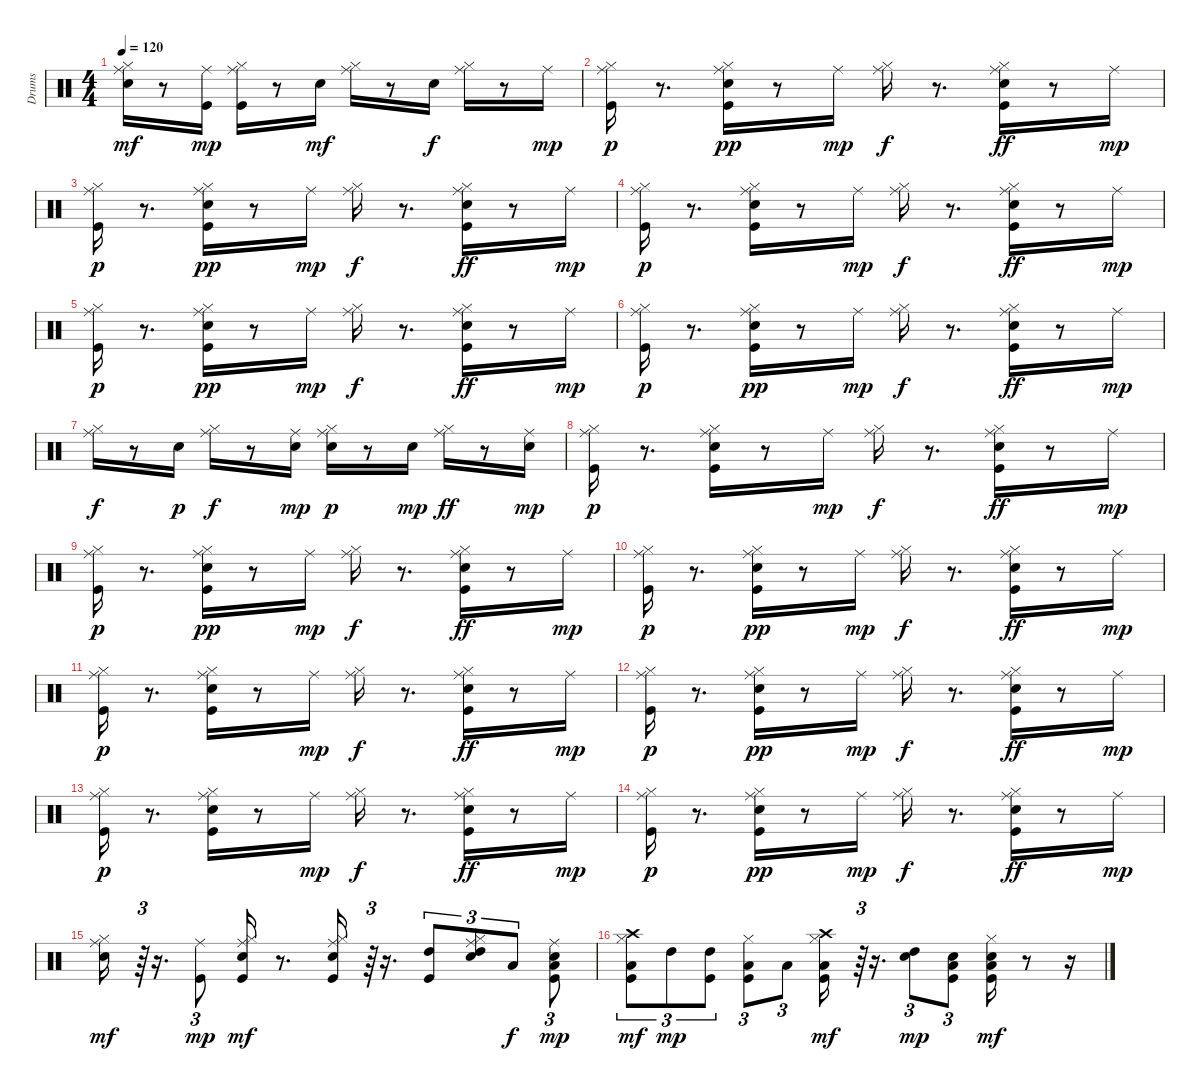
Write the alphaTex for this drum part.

\track ("Drums" "Drums") {instrument percussion}
\staff {score}
\articulation defaults
\ts (4 4)
\tempo 120
\clef neutral
\ks c
("Snare (hit) 2" "Hi-Hat (closed)" "Ride (middle)").16{dy mf} r.8 ("Kick (hit)" "Ride (middle)").16{dy mp} ("Kick (hit)" "Hi-Hat (closed)" "Ride (middle)").16 r.8 "Snare (hit) 2".16{dy mf} ("Hi-Hat (closed)" "Ride (middle)").16 r.8 "Snare (hit) 2".16{dy f} ("Hi-Hat (closed)" "Ride (middle)").16 r.8 "Ride (middle)".16{dy mp} |
("Kick (hit)" "Hi-Hat (closed)" "Ride (middle)").16{dy p} r.8{d} ("Kick (hit)" "Snare (hit) 2" "Hi-Hat (closed)" "Ride (middle)").16{dy pp} r.8 "Ride (middle)".16{dy mp} ("Hi-Hat (closed)" "Ride (middle)").16{dy f} r.8{d} ("Kick (hit)" "Snare (hit) 2" "Hi-Hat (closed)" "Ride (middle)").16{dy ff} r.8 "Ride (middle)".16{dy mp} |
("Kick (hit)" "Hi-Hat (closed)" "Ride (middle)").16{dy p} r.8{d} ("Kick (hit)" "Snare (hit) 2" "Hi-Hat (closed)" "Ride (middle)").16{dy pp} r.8 "Ride (middle)".16{dy mp} ("Hi-Hat (closed)" "Ride (middle)").16{dy f} r.8{d} ("Kick (hit)" "Snare (hit) 2" "Hi-Hat (closed)" "Ride (middle)").16{dy ff} r.8 "Ride (middle)".16{dy mp} |
("Kick (hit)" "Hi-Hat (closed)" "Ride (middle)").16{dy p} r.8{d} ("Kick (hit)" "Snare (hit) 2" "Hi-Hat (closed)" "Ride (middle)").16 r.8 "Ride (middle)".16{dy mp} ("Hi-Hat (closed)" "Ride (middle)").16{dy f} r.8{d} ("Kick (hit)" "Snare (hit) 2" "Hi-Hat (closed)" "Ride (middle)").16{dy ff} r.8 "Ride (middle)".16{dy mp} |
("Kick (hit)" "Hi-Hat (closed)" "Ride (middle)").16{dy p} r.8{d} ("Kick (hit)" "Snare (hit) 2" "Hi-Hat (closed)" "Ride (middle)").16{dy pp} r.8 "Ride (middle)".16{dy mp} ("Hi-Hat (closed)" "Ride (middle)").16{dy f} r.8{d} ("Kick (hit)" "Snare (hit) 2" "Hi-Hat (closed)" "Ride (middle)").16{dy ff} r.8 "Ride (middle)".16{dy mp} |
("Kick (hit)" "Hi-Hat (closed)" "Ride (middle)").16{dy p} r.8{d} ("Kick (hit)" "Snare (hit) 2" "Hi-Hat (closed)" "Ride (middle)").16{dy pp} r.8 "Ride (middle)".16{dy mp} ("Hi-Hat (closed)" "Ride (middle)").16{dy f} r.8{d} ("Kick (hit)" "Snare (hit) 2" "Hi-Hat (closed)" "Ride (middle)").16{dy ff} r.8 "Ride (middle)".16{dy mp} |
("Hi-Hat (closed)" "Ride (middle)").16{dy f} r.8 "Snare (hit) 2".16{dy p} ("Hi-Hat (closed)" "Ride (middle)").16{dy f} r.8 ("Snare (hit) 2" "Ride (middle)").16{dy mp} ("Snare (hit) 2" "Hi-Hat (closed)" "Ride (middle)").16{dy p} r.8 "Snare (hit) 2".16{dy mp} ("Hi-Hat (closed)" "Ride (middle)").16{dy ff} r.8 ("Snare (hit) 2" "Ride (middle)").16{dy mp} |
("Kick (hit)" "Hi-Hat (closed)" "Ride (middle)").16{dy p} r.8{d} ("Kick (hit)" "Snare (hit) 2" "Hi-Hat (closed)" "Ride (middle)").16 r.8 "Ride (middle)".16{dy mp} ("Hi-Hat (closed)" "Ride (middle)").16{dy f} r.8{d} ("Kick (hit)" "Snare (hit) 2" "Hi-Hat (closed)" "Ride (middle)").16{dy ff} r.8 "Ride (middle)".16{dy mp} |
("Kick (hit)" "Hi-Hat (closed)" "Ride (middle)").16{dy p} r.8{d} ("Kick (hit)" "Snare (hit) 2" "Hi-Hat (closed)" "Ride (middle)").16{dy pp} r.8 "Ride (middle)".16{dy mp} ("Hi-Hat (closed)" "Ride (middle)").16{dy f} r.8{d} ("Kick (hit)" "Snare (hit) 2" "Hi-Hat (closed)" "Ride (middle)").16{dy ff} r.8 "Ride (middle)".16{dy mp} |
("Kick (hit)" "Hi-Hat (closed)" "Ride (middle)").16{dy p} r.8{d} ("Kick (hit)" "Snare (hit) 2" "Hi-Hat (closed)" "Ride (middle)").16{dy pp} r.8 "Ride (middle)".16{dy mp} ("Hi-Hat (closed)" "Ride (middle)").16{dy f} r.8{d} ("Kick (hit)" "Snare (hit) 2" "Hi-Hat (closed)" "Ride (middle)").16{dy ff} r.8 "Ride (middle)".16{dy mp} |
("Kick (hit)" "Hi-Hat (closed)" "Ride (middle)").16{dy p} r.8{d} ("Kick (hit)" "Snare (hit) 2" "Hi-Hat (closed)" "Ride (middle)").16 r.8 "Ride (middle)".16{dy mp} ("Hi-Hat (closed)" "Ride (middle)").16{dy f} r.8{d} ("Kick (hit)" "Snare (hit) 2" "Hi-Hat (closed)" "Ride (middle)").16{dy ff} r.8 "Ride (middle)".16{dy mp} |
("Kick (hit)" "Hi-Hat (closed)" "Ride (middle)").16{dy p} r.8{d} ("Kick (hit)" "Snare (hit) 2" "Hi-Hat (closed)" "Ride (middle)").16{dy pp} r.8 "Ride (middle)".16{dy mp} ("Hi-Hat (closed)" "Ride (middle)").16{dy f} r.8{d} ("Kick (hit)" "Snare (hit) 2" "Hi-Hat (closed)" "Ride (middle)").16{dy ff} r.8 "Ride (middle)".16{dy mp} |
("Kick (hit)" "Hi-Hat (closed)" "Ride (middle)").16{dy p} r.8{d} ("Kick (hit)" "Snare (hit) 2" "Hi-Hat (closed)" "Ride (middle)").16 r.8 "Ride (middle)".16{dy mp} ("Hi-Hat (closed)" "Ride (middle)").16{dy f} r.8{d} ("Kick (hit)" "Snare (hit) 2" "Hi-Hat (closed)" "Ride (middle)").16{dy ff} r.8 "Ride (middle)".16{dy mp} |
("Kick (hit)" "Hi-Hat (closed)" "Ride (middle)").16{dy p} r.8{d} ("Kick (hit)" "Snare (hit) 2" "Hi-Hat (closed)" "Ride (middle)").16{dy pp} r.8 "Ride (middle)".16{dy mp} ("Hi-Hat (closed)" "Ride (middle)").16{dy f} r.8{d} ("Kick (hit)" "Snare (hit) 2" "Hi-Hat (closed)" "Ride (middle)").16{dy ff} r.8 "Ride (middle)".16{dy mp} |
("Snare (hit) 2" "Hi-Hat (closed)" "Ride (middle)").16{dy mf} r.64{tu (3 2)} r.16{d} ("Kick (hit)" "Ride (middle)").8{tu (3 2) dy mp} ("Kick (hit)" "Snare (hit) 2" "Hi-Hat (closed)" "Ride (middle)").16{dy mf} r.8{d} ("Kick (hit)" "Snare (hit) 2" "Hi-Hat (closed)" "Ride (middle)").16 r.64{tu (3 2)} r.16{d} ("Kick (hit)" "High Tom (hit)").8{tu (3 2)} ("Snare (hit) 2" "Hi-Hat (closed)" "Ride (middle)" "High Tom (hit)").8{tu (3 2)} "Low Tom (hit)".8{tu (3 2) dy f} ("Kick (hit)" "Snare (hit) 2" "Ride (middle)" "Low Floor Tom (hit)").8{tu (3 2) dy mp} |
("Kick (hit)" "Hi-Hat (closed)" "Crash high (hit)" "Low Floor Tom (hit)").8{tu (3 2) dy mf} "High Tom (hit)".8{tu (3 2) dy mp} ("Kick (hit)" "High Tom (hit)").8{tu (3 2)} ("Kick (hit)" "Hi-Hat (closed)" "Low Tom (hit)").8{tu (3 2)} "Low Tom (hit)".8{tu (3 2)} ("Kick (hit)" "Hi-Hat (closed)" "Crash high (hit)" "Low Floor Tom (hit)").16{dy mf} r.64{tu (3 2)} r.16{d} ("Snare (hit) 2" "High Tom (hit)").8{tu (3 2) dy mp} ("Kick (hit)" "Snare (hit) 2" "Low Tom (hit)").8{tu (3 2)} ("Kick (hit)" "Snare (hit) 2" "Hi-Hat (closed)" "Low Floor Tom (hit)").16{dy mf} r.8 r.16
